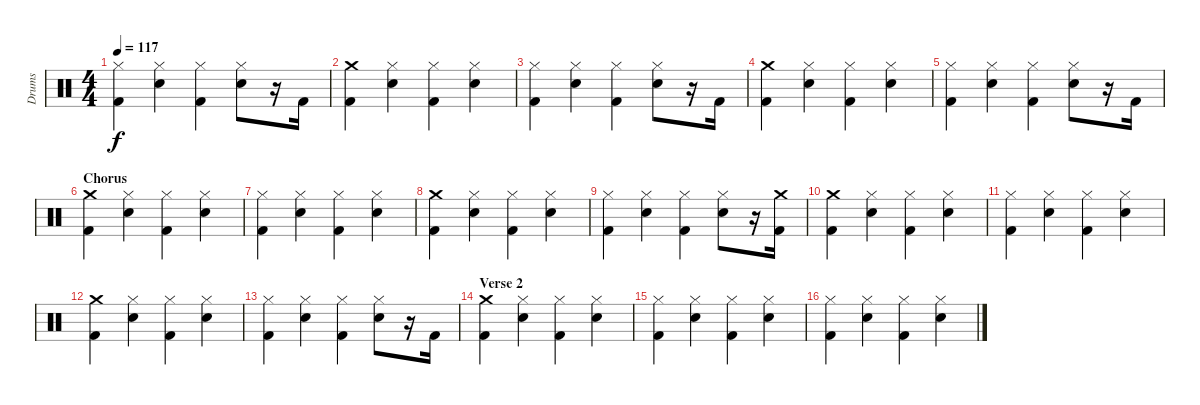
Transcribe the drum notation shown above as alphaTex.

\track ("Drums" "Drums") {instrument percussion}
\staff {score}
\articulation defaults
\ts (4 4)
\tempo 117
\clef neutral
\ks c
("Hi-Hat (closed)" "Kick (hit) 2").4{dy f} ("Hi-Hat (closed)" "Snare (hit) 2").4 ("Hi-Hat (closed)" "Kick (hit) 2").4 ("Hi-Hat (closed)" "Snare (hit) 2").8 r.16 "Kick (hit) 2".16 |
("Crash medium (hit)" "Kick (hit) 2").4 ("Hi-Hat (closed)" "Snare (hit) 2").4 ("Hi-Hat (closed)" "Kick (hit) 2").4 ("Hi-Hat (closed)" "Snare (hit) 2").4 |
("Hi-Hat (closed)" "Kick (hit) 2").4 ("Hi-Hat (closed)" "Snare (hit) 2").4 ("Hi-Hat (closed)" "Kick (hit) 2").4 ("Hi-Hat (closed)" "Snare (hit) 2").8 r.16 "Kick (hit) 2".16 |
("Crash medium (hit)" "Kick (hit) 2").4 ("Hi-Hat (closed)" "Snare (hit) 2").4 ("Hi-Hat (closed)" "Kick (hit) 2").4 ("Hi-Hat (closed)" "Snare (hit) 2").4 |
("Hi-Hat (closed)" "Kick (hit) 2").4 ("Hi-Hat (closed)" "Snare (hit) 2").4 ("Hi-Hat (closed)" "Kick (hit) 2").4 ("Hi-Hat (closed)" "Snare (hit) 2").8 r.16 "Kick (hit) 2".16 |
\section ("" "Chorus")
("Crash medium (hit)" "Kick (hit) 2").4 ("Hi-Hat (closed)" "Snare (hit) 2").4 ("Hi-Hat (closed)" "Kick (hit) 2").4 ("Hi-Hat (closed)" "Snare (hit) 2").4 |
("Hi-Hat (closed)" "Kick (hit) 2").4 ("Hi-Hat (closed)" "Snare (hit) 2").4 ("Hi-Hat (closed)" "Kick (hit) 2").4 ("Hi-Hat (closed)" "Snare (hit) 2").4 |
("Crash medium (hit)" "Kick (hit) 2").4 ("Hi-Hat (closed)" "Snare (hit) 2").4 ("Hi-Hat (closed)" "Kick (hit) 2").4 ("Hi-Hat (closed)" "Snare (hit) 2").4 |
("Hi-Hat (closed)" "Kick (hit) 2").4 ("Hi-Hat (closed)" "Snare (hit) 2").4 ("Hi-Hat (closed)" "Kick (hit) 2").4 ("Hi-Hat (closed)" "Snare (hit) 2").8 r.16 ("Crash medium (hit)" "Kick (hit) 2").16 |
("Crash medium (hit)" "Kick (hit) 2").4 ("Hi-Hat (closed)" "Snare (hit) 2").4 ("Hi-Hat (closed)" "Kick (hit) 2").4 ("Hi-Hat (closed)" "Snare (hit) 2").4 |
("Hi-Hat (closed)" "Kick (hit) 2").4 ("Hi-Hat (closed)" "Snare (hit) 2").4 ("Hi-Hat (closed)" "Kick (hit) 2").4 ("Hi-Hat (closed)" "Snare (hit) 2").4 |
("Crash medium (hit)" "Kick (hit) 2").4 ("Hi-Hat (closed)" "Snare (hit) 2").4 ("Hi-Hat (closed)" "Kick (hit) 2").4 ("Hi-Hat (closed)" "Snare (hit) 2").4 |
("Hi-Hat (closed)" "Kick (hit) 2").4 ("Hi-Hat (closed)" "Snare (hit) 2").4 ("Hi-Hat (closed)" "Kick (hit) 2").4 ("Hi-Hat (closed)" "Snare (hit) 2").8 r.16 "Kick (hit) 2".16 |
\section ("" "Verse 2")
("Crash medium (hit)" "Kick (hit) 2").4 ("Hi-Hat (closed)" "Snare (hit) 2").4 ("Hi-Hat (closed)" "Kick (hit) 2").4 ("Hi-Hat (closed)" "Snare (hit) 2").4 |
("Hi-Hat (closed)" "Kick (hit) 2").4 ("Hi-Hat (closed)" "Snare (hit) 2").4 ("Hi-Hat (closed)" "Kick (hit) 2").4 ("Hi-Hat (closed)" "Snare (hit) 2").4 |
("Hi-Hat (closed)" "Kick (hit) 2").4 ("Hi-Hat (closed)" "Snare (hit) 2").4 ("Hi-Hat (closed)" "Kick (hit) 2").4 ("Hi-Hat (closed)" "Snare (hit) 2").4
